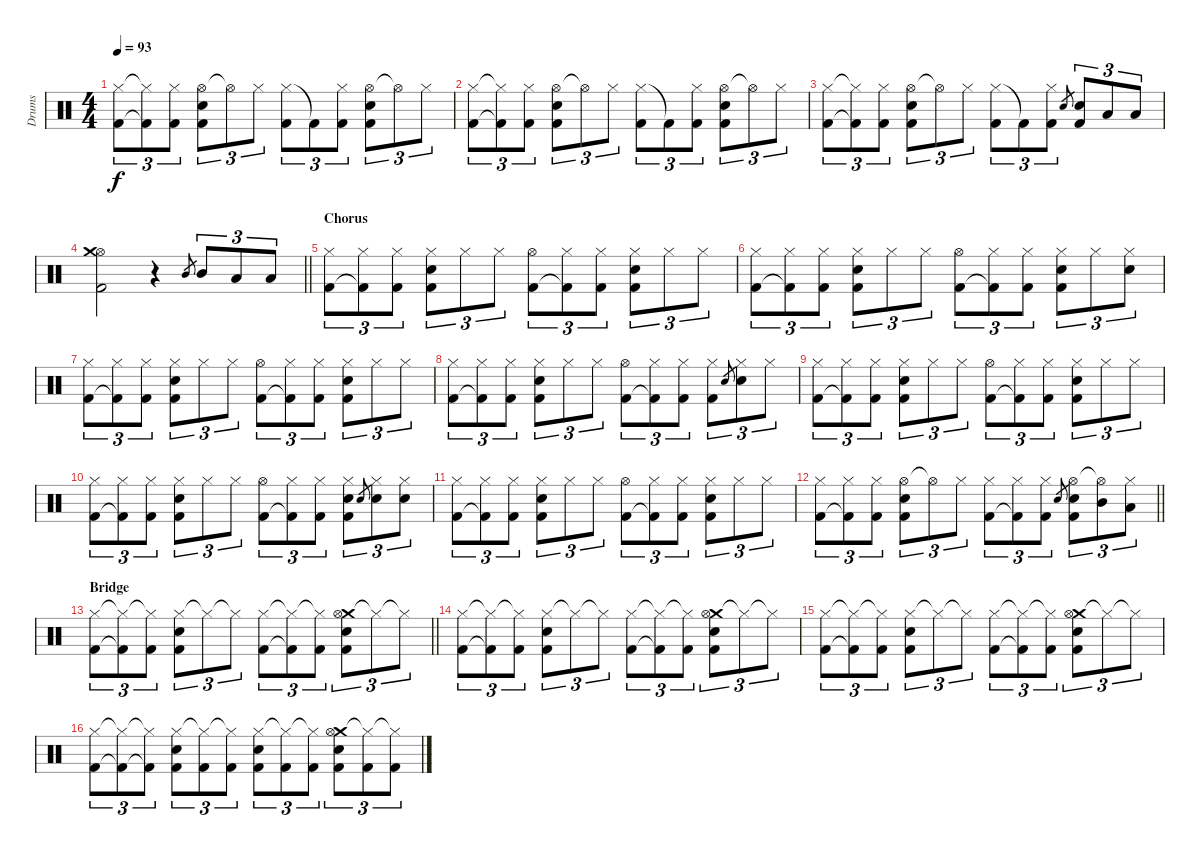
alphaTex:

\track ("Drums" "Drums") {instrument percussion}
\staff {score}
\articulation defaults
\ts (4 4)
\tempo 93
\clef neutral
\ks c
("Hi-Hat (closed)" "Kick (hit) 2").8{tu (3 2) dy f} ("Hi-Hat (closed)"{t} "Kick (hit) 2"{t}).8{tu (3 2)} ("Hi-Hat (closed)" "Kick (hit) 2").8{tu (3 2)} ("Hi-Hat (open)" "Snare (hit) 2" "Kick (hit) 2").8{tu (3 2)} "Hi-Hat (open)"{t}.8{tu (3 2)} "Hi-Hat (closed)".8{tu (3 2)} ("Hi-Hat (closed)" "Kick (hit) 2").8{tu (3 2)} "Kick (hit) 2"{t}.8{tu (3 2)} ("Hi-Hat (closed)" "Kick (hit) 2").8{tu (3 2)} ("Hi-Hat (open)" "Snare (hit) 2" "Kick (hit) 2").8{tu (3 2)} "Hi-Hat (open)"{t}.8{tu (3 2)} "Hi-Hat (closed)".8{tu (3 2)} |
("Hi-Hat (closed)" "Kick (hit) 2").8{tu (3 2)} ("Hi-Hat (closed)"{t} "Kick (hit) 2"{t}).8{tu (3 2)} ("Hi-Hat (closed)" "Kick (hit) 2").8{tu (3 2)} ("Hi-Hat (open)" "Snare (hit) 2" "Kick (hit) 2").8{tu (3 2)} "Hi-Hat (open)"{t}.8{tu (3 2)} "Hi-Hat (closed)".8{tu (3 2)} ("Hi-Hat (closed)" "Kick (hit) 2").8{tu (3 2)} "Kick (hit) 2"{t}.8{tu (3 2)} ("Hi-Hat (closed)" "Kick (hit) 2").8{tu (3 2)} ("Hi-Hat (open)" "Snare (hit) 2" "Kick (hit) 2").8{tu (3 2)} "Hi-Hat (open)"{t}.8{tu (3 2)} "Hi-Hat (closed)".8{tu (3 2)} |
("Hi-Hat (closed)" "Kick (hit) 2").8{tu (3 2)} ("Hi-Hat (closed)"{t} "Kick (hit) 2"{t}).8{tu (3 2)} ("Hi-Hat (closed)" "Kick (hit) 2").8{tu (3 2)} ("Hi-Hat (open)" "Snare (hit) 2" "Kick (hit) 2").8{tu (3 2)} "Hi-Hat (open)"{t}.8{tu (3 2)} "Hi-Hat (closed)".8{tu (3 2)} ("Hi-Hat (closed)" "Kick (hit) 2").8{tu (3 2)} "Kick (hit) 2"{t}.8{tu (3 2)} ("Hi-Hat (closed)" "Kick (hit) 2").8{tu (3 2)} "Snare (hit) 2".8{gr} ("Snare (hit) 2" "Kick (hit) 2").8{tu (3 2)} "Low Floor Tom (hit)".8{tu (3 2)} "Low Floor Tom (hit)".8{tu (3 2)} |
\barLineRight lightlight
("Hi-Hat (open)" "Crash medium (hit)" "Kick (hit) 2").2 r.4 "Mid Tom (hit)".8{gr} "Mid Tom (hit)".8{tu (3 2)} "Low Floor Tom (hit)".8{tu (3 2)} "Low Floor Tom (hit)".8{tu (3 2)} |
\section ("" "Chorus")
("Hi-Hat (closed)" "Kick (hit) 2").8{tu (3 2)} ("Hi-Hat (closed)" "Kick (hit) 2"{t}).8{tu (3 2)} ("Hi-Hat (closed)" "Kick (hit) 2").8{tu (3 2)} ("Hi-Hat (closed)" "Snare (hit) 2" "Kick (hit) 2").8{tu (3 2)} "Hi-Hat (closed)".8{tu (3 2)} "Hi-Hat (closed)".8{tu (3 2)} ("Hi-Hat (open)" "Kick (hit) 2").8{tu (3 2)} ("Hi-Hat (closed)" "Kick (hit) 2"{t}).8{tu (3 2)} ("Hi-Hat (closed)" "Kick (hit) 2").8{tu (3 2)} ("Hi-Hat (closed)" "Snare (hit) 2" "Kick (hit) 2").8{tu (3 2)} "Hi-Hat (closed)".8{tu (3 2)} "Hi-Hat (closed)".8{tu (3 2)} |
("Hi-Hat (closed)" "Kick (hit) 2").8{tu (3 2)} ("Hi-Hat (closed)" "Kick (hit) 2"{t}).8{tu (3 2)} ("Hi-Hat (closed)" "Kick (hit) 2").8{tu (3 2)} ("Hi-Hat (closed)" "Snare (hit) 2" "Kick (hit) 2").8{tu (3 2)} "Hi-Hat (closed)".8{tu (3 2)} "Hi-Hat (closed)".8{tu (3 2)} ("Hi-Hat (open)" "Kick (hit) 2").8{tu (3 2)} ("Hi-Hat (closed)" "Kick (hit) 2"{t}).8{tu (3 2)} ("Hi-Hat (closed)" "Kick (hit) 2").8{tu (3 2)} ("Hi-Hat (closed)" "Snare (hit) 2" "Kick (hit) 2").8{tu (3 2)} "Hi-Hat (closed)".8{tu (3 2)} ("Hi-Hat (closed)" "Snare (hit) 2").8{tu (3 2)} |
("Hi-Hat (closed)" "Kick (hit) 2").8{tu (3 2)} ("Hi-Hat (closed)" "Kick (hit) 2"{t}).8{tu (3 2)} ("Hi-Hat (closed)" "Kick (hit) 2").8{tu (3 2)} ("Hi-Hat (closed)" "Snare (hit) 2" "Kick (hit) 2").8{tu (3 2)} "Hi-Hat (closed)".8{tu (3 2)} "Hi-Hat (closed)".8{tu (3 2)} ("Hi-Hat (open)" "Kick (hit) 2").8{tu (3 2)} ("Hi-Hat (closed)" "Kick (hit) 2"{t}).8{tu (3 2)} ("Hi-Hat (closed)" "Kick (hit) 2").8{tu (3 2)} ("Hi-Hat (closed)" "Snare (hit) 2" "Kick (hit) 2").8{tu (3 2)} "Hi-Hat (closed)".8{tu (3 2)} "Hi-Hat (closed)".8{tu (3 2)} |
("Hi-Hat (closed)" "Kick (hit) 2").8{tu (3 2)} ("Hi-Hat (closed)" "Kick (hit) 2"{t}).8{tu (3 2)} ("Hi-Hat (closed)" "Kick (hit) 2").8{tu (3 2)} ("Hi-Hat (closed)" "Snare (hit) 2" "Kick (hit) 2").8{tu (3 2)} "Hi-Hat (closed)".8{tu (3 2)} "Hi-Hat (closed)".8{tu (3 2)} ("Hi-Hat (open)" "Kick (hit) 2").8{tu (3 2)} ("Hi-Hat (closed)" "Kick (hit) 2"{t}).8{tu (3 2)} ("Hi-Hat (closed)" "Kick (hit) 2").8{tu (3 2)} ("Hi-Hat (closed)" "Kick (hit) 2").8{tu (3 2)} "Snare (hit) 2".8{gr} ("Hi-Hat (closed)" "Snare (hit) 2").8{tu (3 2)} "Hi-Hat (closed)".8{tu (3 2)} |
("Hi-Hat (closed)" "Kick (hit) 2").8{tu (3 2)} ("Hi-Hat (closed)" "Kick (hit) 2"{t}).8{tu (3 2)} ("Hi-Hat (closed)" "Kick (hit) 2").8{tu (3 2)} ("Hi-Hat (closed)" "Snare (hit) 2" "Kick (hit) 2").8{tu (3 2)} "Hi-Hat (closed)".8{tu (3 2)} "Hi-Hat (closed)".8{tu (3 2)} ("Hi-Hat (open)" "Kick (hit) 2").8{tu (3 2)} ("Hi-Hat (closed)" "Kick (hit) 2"{t}).8{tu (3 2)} ("Hi-Hat (closed)" "Kick (hit) 2").8{tu (3 2)} ("Hi-Hat (closed)" "Snare (hit) 2" "Kick (hit) 2").8{tu (3 2)} "Hi-Hat (closed)".8{tu (3 2)} "Hi-Hat (closed)".8{tu (3 2)} |
("Hi-Hat (closed)" "Kick (hit) 2").8{tu (3 2)} ("Hi-Hat (closed)" "Kick (hit) 2"{t}).8{tu (3 2)} ("Hi-Hat (closed)" "Kick (hit) 2").8{tu (3 2)} ("Hi-Hat (closed)" "Snare (hit) 2" "Kick (hit) 2").8{tu (3 2)} "Hi-Hat (closed)".8{tu (3 2)} "Hi-Hat (closed)".8{tu (3 2)} ("Hi-Hat (open)" "Kick (hit) 2").8{tu (3 2)} ("Hi-Hat (closed)" "Kick (hit) 2"{t}).8{tu (3 2)} ("Hi-Hat (closed)" "Kick (hit) 2").8{tu (3 2)} ("Hi-Hat (closed)" "Snare (hit) 2" "Kick (hit) 2").8{tu (3 2)} "Snare (hit) 2".8{gr} ("Hi-Hat (closed)" "Snare (hit) 2").8{tu (3 2)} ("Hi-Hat (closed)" "Snare (hit) 2").8{tu (3 2)} |
("Hi-Hat (closed)" "Kick (hit) 2").8{tu (3 2)} ("Hi-Hat (closed)" "Kick (hit) 2"{t}).8{tu (3 2)} ("Hi-Hat (closed)" "Kick (hit) 2").8{tu (3 2)} ("Hi-Hat (closed)" "Snare (hit) 2" "Kick (hit) 2").8{tu (3 2)} "Hi-Hat (closed)".8{tu (3 2)} "Hi-Hat (closed)".8{tu (3 2)} ("Hi-Hat (open)" "Kick (hit) 2").8{tu (3 2)} ("Hi-Hat (closed)" "Kick (hit) 2"{t}).8{tu (3 2)} ("Hi-Hat (closed)" "Kick (hit) 2").8{tu (3 2)} ("Hi-Hat (closed)" "Snare (hit) 2" "Kick (hit) 2").8{tu (3 2)} "Hi-Hat (closed)".8{tu (3 2)} "Hi-Hat (closed)".8{tu (3 2)} |
\barLineRight lightlight
("Hi-Hat (closed)" "Kick (hit) 2").8{tu (3 2)} ("Hi-Hat (closed)" "Kick (hit) 2"{t}).8{tu (3 2)} ("Hi-Hat (closed)" "Kick (hit) 2").8{tu (3 2)} ("Hi-Hat (open)" "Snare (hit) 2" "Kick (hit) 2").8{tu (3 2)} "Hi-Hat (open)"{t}.8{tu (3 2)} "Hi-Hat (closed)".8{tu (3 2)} ("Hi-Hat (closed)" "Kick (hit) 2").8{tu (3 2)} ("Hi-Hat (closed)" "Kick (hit) 2"{t}).8{tu (3 2)} ("Hi-Hat (closed)" "Kick (hit) 2").8{tu (3 2)} "Snare (hit) 2".8{gr} ("Hi-Hat (open)" "Snare (hit) 2" "Kick (hit) 2").8{tu (3 2)} ("Hi-Hat (open)"{t} "Mid Tom (hit)").8{tu (3 2)} ("Hi-Hat (closed)" "Low Floor Tom (hit)").8{tu (3 2)} |
\section ("" "Bridge")
\barLineRight lightlight
("Hi-Hat (closed)" "Kick (hit) 2").8{tu (3 2)} ("Hi-Hat (closed)"{t} "Kick (hit) 2"{t}).8{tu (3 2)} ("Hi-Hat (closed)"{t} "Kick (hit) 2").8{tu (3 2)} ("Hi-Hat (closed)" "Snare (hit) 2" "Kick (hit) 2").8{tu (3 2)} "Hi-Hat (closed)"{t}.8{tu (3 2)} "Hi-Hat (closed)"{t}.8{tu (3 2)} ("Hi-Hat (closed)" "Kick (hit) 2").8{tu (3 2)} ("Hi-Hat (closed)"{t} "Kick (hit) 2"{t}).8{tu (3 2)} ("Hi-Hat (closed)"{t} "Kick (hit) 2").8{tu (3 2)} ("Crash medium (hit)" "Hi-Hat (open)" "Snare (hit) 2" "Kick (hit) 2").8{tu (3 2)} "Hi-Hat (closed)"{t}.8{tu (3 2)} "Hi-Hat (closed)"{t}.8{tu (3 2)} |
("Hi-Hat (closed)" "Kick (hit) 2").8{tu (3 2)} ("Hi-Hat (closed)"{t} "Kick (hit) 2"{t}).8{tu (3 2)} ("Hi-Hat (closed)"{t} "Kick (hit) 2").8{tu (3 2)} ("Hi-Hat (closed)" "Snare (hit) 2" "Kick (hit) 2").8{tu (3 2)} "Hi-Hat (closed)"{t}.8{tu (3 2)} "Hi-Hat (closed)"{t}.8{tu (3 2)} ("Hi-Hat (closed)" "Kick (hit) 2").8{tu (3 2)} ("Hi-Hat (closed)"{t} "Kick (hit) 2"{t}).8{tu (3 2)} ("Hi-Hat (closed)"{t} "Kick (hit) 2").8{tu (3 2)} ("Crash medium (hit)" "Hi-Hat (open)" "Snare (hit) 2" "Kick (hit) 2").8{tu (3 2)} "Hi-Hat (closed)"{t}.8{tu (3 2)} "Hi-Hat (closed)"{t}.8{tu (3 2)} |
("Hi-Hat (closed)" "Kick (hit) 2").8{tu (3 2)} ("Hi-Hat (closed)"{t} "Kick (hit) 2"{t}).8{tu (3 2)} ("Hi-Hat (closed)"{t} "Kick (hit) 2").8{tu (3 2)} ("Hi-Hat (closed)" "Snare (hit) 2" "Kick (hit) 2").8{tu (3 2)} "Hi-Hat (closed)"{t}.8{tu (3 2)} "Hi-Hat (closed)"{t}.8{tu (3 2)} ("Hi-Hat (closed)" "Kick (hit) 2").8{tu (3 2)} ("Hi-Hat (closed)"{t} "Kick (hit) 2"{t}).8{tu (3 2)} ("Hi-Hat (closed)"{t} "Kick (hit) 2").8{tu (3 2)} ("Crash medium (hit)" "Hi-Hat (open)" "Snare (hit) 2" "Kick (hit) 2").8{tu (3 2)} "Hi-Hat (closed)"{t}.8{tu (3 2)} "Hi-Hat (closed)"{t}.8{tu (3 2)} |
("Hi-Hat (closed)" "Kick (hit) 2").8{tu (3 2)} ("Hi-Hat (closed)"{t} "Kick (hit) 2"{t}).8{tu (3 2)} ("Hi-Hat (closed)"{t} "Kick (hit) 2"{t}).8{tu (3 2)} ("Hi-Hat (closed)" "Snare (hit) 2" "Kick (hit) 2").8{tu (3 2)} ("Hi-Hat (closed)"{t} "Kick (hit) 2").8{tu (3 2)} ("Hi-Hat (closed)"{t} "Kick (hit) 2").8{tu (3 2)} ("Hi-Hat (closed)" "Snare (hit) 2" "Kick (hit) 2").8{tu (3 2)} ("Hi-Hat (closed)"{t} "Kick (hit) 2").8{tu (3 2)} ("Hi-Hat (closed)"{t} "Kick (hit) 2").8{tu (3 2)} ("Crash medium (hit)" "Hi-Hat (open)" "Snare (hit) 2" "Kick (hit) 2").8{tu (3 2)} ("Hi-Hat (closed)"{t} "Kick (hit) 2").8{tu (3 2)} ("Hi-Hat (closed)"{t} "Kick (hit) 2").8{tu (3 2)}
